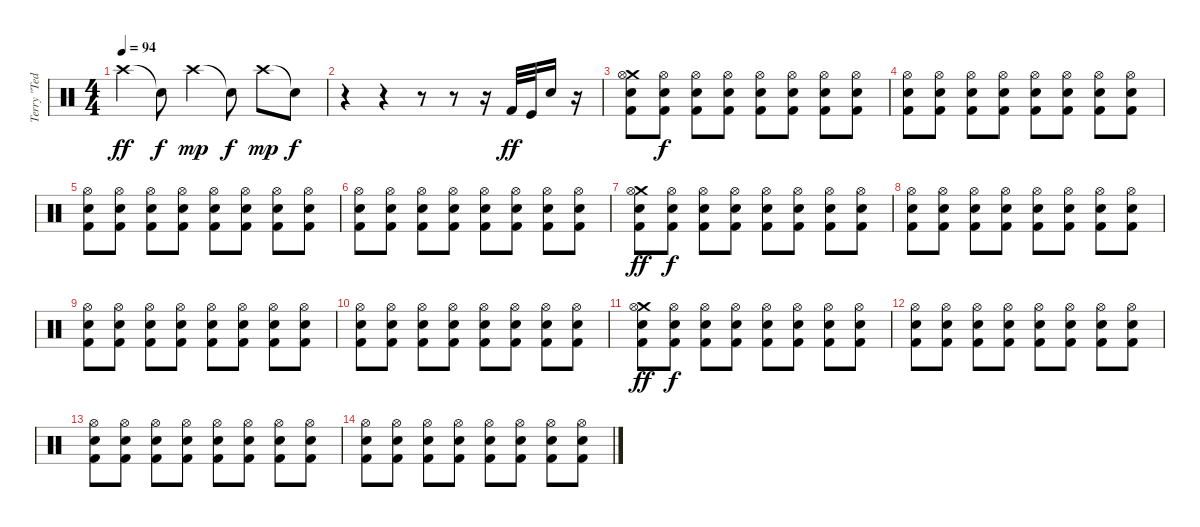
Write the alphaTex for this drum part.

\track ("Terry \"Ted\" Bozzio" "Terry \"Ted") {instrument percussion}
\staff {score}
\articulation defaults
\ts (4 4)
\tempo 94
\clef neutral
\ks c "Crash high (hit)".4{dy ff} "Snare (hit)"{t}.8{dy f} "Crash high (hit)".4{dy mp} "Snare (hit)"{t}.8{dy f} "Crash high (hit)".8{dy mp} "Snare (hit)"{t}.8{dy f}
|
r.4 r.4 r.8 r.8 r.16 "Kick (hit) 2".32{dy ff} "Kick (hit)".32 "Electric Snare (hit)".16 r.16 |
("Crash medium (hit)" "Hi-Hat (open)" "Electric Snare (hit)" "Kick (hit) 2").8 ("Hi-Hat (open)" "Electric Snare (hit)" "Kick (hit) 2").8{dy f} ("Hi-Hat (open)" "Electric Snare (hit)" "Kick (hit) 2").8 ("Hi-Hat (open)" "Electric Snare (hit)" "Kick (hit) 2").8 ("Hi-Hat (open)" "Electric Snare (hit)" "Kick (hit) 2").8 ("Hi-Hat (open)" "Electric Snare (hit)" "Kick (hit) 2").8 ("Hi-Hat (open)" "Electric Snare (hit)" "Kick (hit) 2").8 ("Hi-Hat (open)" "Electric Snare (hit)" "Kick (hit) 2").8 |
("Hi-Hat (open)" "Electric Snare (hit)" "Kick (hit) 2").8 ("Hi-Hat (open)" "Electric Snare (hit)" "Kick (hit) 2").8 ("Hi-Hat (open)" "Electric Snare (hit)" "Kick (hit) 2").8 ("Hi-Hat (open)" "Electric Snare (hit)" "Kick (hit) 2").8 ("Hi-Hat (open)" "Electric Snare (hit)" "Kick (hit) 2").8 ("Hi-Hat (open)" "Electric Snare (hit)" "Kick (hit) 2").8 ("Hi-Hat (open)" "Electric Snare (hit)" "Kick (hit) 2").8 ("Hi-Hat (open)" "Electric Snare (hit)" "Kick (hit) 2").8 |
("Hi-Hat (open)" "Electric Snare (hit)" "Kick (hit) 2").8 ("Hi-Hat (open)" "Electric Snare (hit)" "Kick (hit) 2").8 ("Hi-Hat (open)" "Electric Snare (hit)" "Kick (hit) 2").8 ("Hi-Hat (open)" "Electric Snare (hit)" "Kick (hit) 2").8 ("Hi-Hat (open)" "Electric Snare (hit)" "Kick (hit) 2").8 ("Hi-Hat (open)" "Electric Snare (hit)" "Kick (hit) 2").8 ("Hi-Hat (open)" "Electric Snare (hit)" "Kick (hit) 2").8 ("Hi-Hat (open)" "Electric Snare (hit)" "Kick (hit) 2").8 |
("Hi-Hat (open)" "Electric Snare (hit)" "Kick (hit) 2").8 ("Hi-Hat (open)" "Electric Snare (hit)" "Kick (hit) 2").8 ("Hi-Hat (open)" "Electric Snare (hit)" "Kick (hit) 2").8 ("Hi-Hat (open)" "Electric Snare (hit)" "Kick (hit) 2").8 ("Hi-Hat (open)" "Electric Snare (hit)" "Kick (hit) 2").8 ("Hi-Hat (open)" "Electric Snare (hit)" "Kick (hit) 2").8 ("Hi-Hat (open)" "Electric Snare (hit)" "Kick (hit) 2").8 ("Hi-Hat (open)" "Electric Snare (hit)" "Kick (hit) 2").8 |
("Crash medium (hit)" "Hi-Hat (open)" "Electric Snare (hit)" "Kick (hit) 2").8{dy ff} ("Hi-Hat (open)" "Electric Snare (hit)" "Kick (hit) 2").8{dy f} ("Hi-Hat (open)" "Electric Snare (hit)" "Kick (hit) 2").8 ("Hi-Hat (open)" "Electric Snare (hit)" "Kick (hit) 2").8 ("Hi-Hat (open)" "Electric Snare (hit)" "Kick (hit) 2").8 ("Hi-Hat (open)" "Electric Snare (hit)" "Kick (hit) 2").8 ("Hi-Hat (open)" "Electric Snare (hit)" "Kick (hit) 2").8 ("Hi-Hat (open)" "Electric Snare (hit)" "Kick (hit) 2").8 |
("Hi-Hat (open)" "Electric Snare (hit)" "Kick (hit) 2").8 ("Hi-Hat (open)" "Electric Snare (hit)" "Kick (hit) 2").8 ("Hi-Hat (open)" "Electric Snare (hit)" "Kick (hit) 2").8 ("Hi-Hat (open)" "Electric Snare (hit)" "Kick (hit) 2").8 ("Hi-Hat (open)" "Electric Snare (hit)" "Kick (hit) 2").8 ("Hi-Hat (open)" "Electric Snare (hit)" "Kick (hit) 2").8 ("Hi-Hat (open)" "Electric Snare (hit)" "Kick (hit) 2").8 ("Hi-Hat (open)" "Electric Snare (hit)" "Kick (hit) 2").8 |
("Hi-Hat (open)" "Electric Snare (hit)" "Kick (hit) 2").8 ("Hi-Hat (open)" "Electric Snare (hit)" "Kick (hit) 2").8 ("Hi-Hat (open)" "Electric Snare (hit)" "Kick (hit) 2").8 ("Hi-Hat (open)" "Electric Snare (hit)" "Kick (hit) 2").8 ("Hi-Hat (open)" "Electric Snare (hit)" "Kick (hit) 2").8 ("Hi-Hat (open)" "Electric Snare (hit)" "Kick (hit) 2").8 ("Hi-Hat (open)" "Electric Snare (hit)" "Kick (hit) 2").8 ("Hi-Hat (open)" "Electric Snare (hit)" "Kick (hit) 2").8 |
("Hi-Hat (open)" "Electric Snare (hit)" "Kick (hit) 2").8 ("Hi-Hat (open)" "Electric Snare (hit)" "Kick (hit) 2").8 ("Hi-Hat (open)" "Electric Snare (hit)" "Kick (hit) 2").8 ("Hi-Hat (open)" "Electric Snare (hit)" "Kick (hit) 2").8 ("Hi-Hat (open)" "Electric Snare (hit)" "Kick (hit) 2").8 ("Hi-Hat (open)" "Electric Snare (hit)" "Kick (hit) 2").8 ("Hi-Hat (open)" "Electric Snare (hit)" "Kick (hit) 2").8 ("Hi-Hat (open)" "Electric Snare (hit)" "Kick (hit) 2").8 |
("Crash medium (hit)" "Hi-Hat (open)" "Electric Snare (hit)" "Kick (hit) 2").8{dy ff} ("Hi-Hat (open)" "Electric Snare (hit)" "Kick (hit) 2").8{dy f} ("Hi-Hat (open)" "Electric Snare (hit)" "Kick (hit) 2").8 ("Hi-Hat (open)" "Electric Snare (hit)" "Kick (hit) 2").8 ("Hi-Hat (open)" "Electric Snare (hit)" "Kick (hit) 2").8 ("Hi-Hat (open)" "Electric Snare (hit)" "Kick (hit) 2").8 ("Hi-Hat (open)" "Electric Snare (hit)" "Kick (hit) 2").8 ("Hi-Hat (open)" "Electric Snare (hit)" "Kick (hit) 2").8 |
("Hi-Hat (open)" "Electric Snare (hit)" "Kick (hit) 2").8 ("Hi-Hat (open)" "Electric Snare (hit)" "Kick (hit) 2").8 ("Hi-Hat (open)" "Electric Snare (hit)" "Kick (hit) 2").8 ("Hi-Hat (open)" "Electric Snare (hit)" "Kick (hit) 2").8 ("Hi-Hat (open)" "Electric Snare (hit)" "Kick (hit) 2").8 ("Hi-Hat (open)" "Electric Snare (hit)" "Kick (hit) 2").8 ("Hi-Hat (open)" "Electric Snare (hit)" "Kick (hit) 2").8 ("Hi-Hat (open)" "Electric Snare (hit)" "Kick (hit) 2").8 |
("Hi-Hat (open)" "Electric Snare (hit)" "Kick (hit) 2").8 ("Hi-Hat (open)" "Electric Snare (hit)" "Kick (hit) 2").8 ("Hi-Hat (open)" "Electric Snare (hit)" "Kick (hit) 2").8 ("Hi-Hat (open)" "Electric Snare (hit)" "Kick (hit) 2").8 ("Hi-Hat (open)" "Electric Snare (hit)" "Kick (hit) 2").8 ("Hi-Hat (open)" "Electric Snare (hit)" "Kick (hit) 2").8 ("Hi-Hat (open)" "Electric Snare (hit)" "Kick (hit) 2").8 ("Hi-Hat (open)" "Electric Snare (hit)" "Kick (hit) 2").8 |
("Hi-Hat (open)" "Electric Snare (hit)" "Kick (hit) 2").8 ("Hi-Hat (open)" "Electric Snare (hit)" "Kick (hit) 2").8 ("Hi-Hat (open)" "Electric Snare (hit)" "Kick (hit) 2").8 ("Hi-Hat (open)" "Electric Snare (hit)" "Kick (hit) 2").8 ("Hi-Hat (open)" "Electric Snare (hit)" "Kick (hit) 2").8 ("Hi-Hat (open)" "Electric Snare (hit)" "Kick (hit) 2").8 ("Hi-Hat (open)" "Electric Snare (hit)" "Kick (hit) 2").8 ("Hi-Hat (open)" "Electric Snare (hit)" "Kick (hit) 2").8
